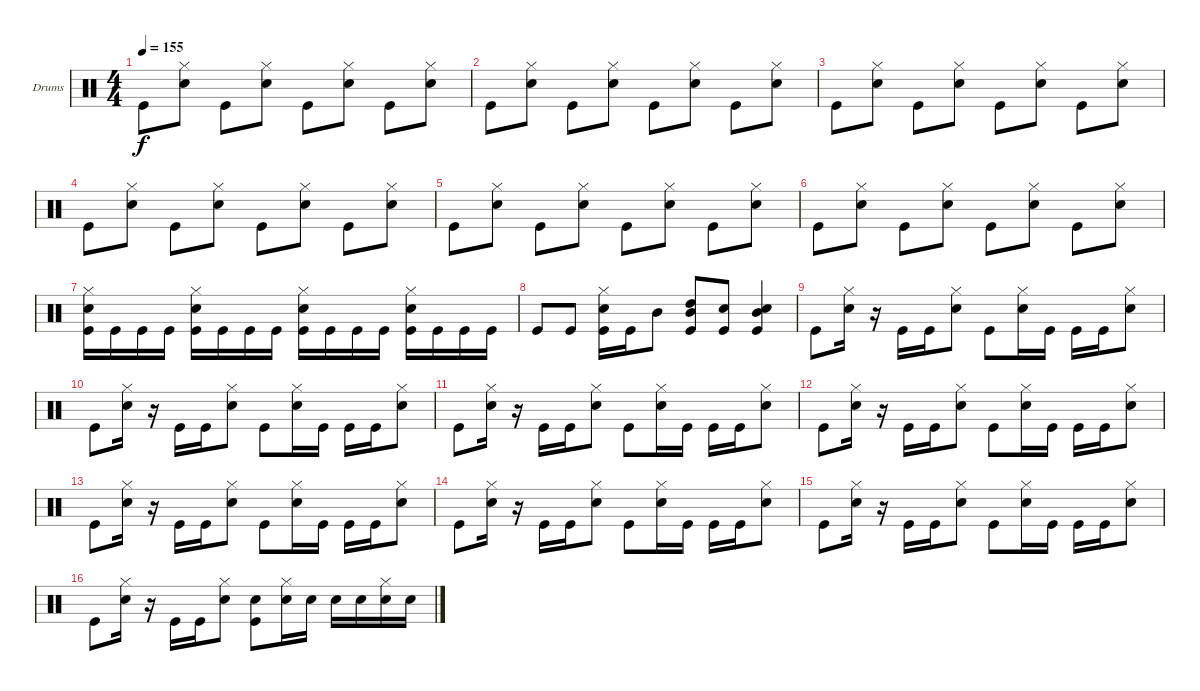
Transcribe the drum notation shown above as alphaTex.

\defaultSystemsLayout 4
\bracketExtendMode groupsimilarinstruments
\firstSystemTrackNameOrientation horizontal
\otherSystemsTrackNameOrientation horizontal
\track ("Drumkit" "Drums") {instrument percussion}
\staff {score}
\articulation defaults
\ts (4 4)
\tempo 155
\clef neutral
\scale
0.333333
\ks c "Kick (hit)".8{dy f}
("Snare (hit) 2" "Hi-Hat (closed)").8 "Kick (hit)".8 ("Snare (hit) 2" "Hi-Hat (closed)").8 "Kick (hit)".8 ("Snare (hit) 2" "Hi-Hat (closed)").8 "Kick (hit)".8 ("Snare (hit) 2" "Hi-Hat (closed)").8 |
\scale
0.333333 "Kick (hit)".8 ("Snare (hit) 2" "Hi-Hat (closed)").8 "Kick (hit)".8 ("Snare (hit) 2" "Hi-Hat (closed)").8 "Kick (hit)".8 ("Snare (hit) 2" "Hi-Hat (closed)").8 "Kick (hit)".8 ("Snare (hit) 2" "Hi-Hat (closed)").8 |
\scale
0.333333 "Kick (hit)".8 ("Snare (hit) 2" "Hi-Hat (closed)").8 "Kick (hit)".8 ("Snare (hit) 2" "Hi-Hat (closed)").8 "Kick (hit)".8 ("Snare (hit) 2" "Hi-Hat (closed)").8 "Kick (hit)".8 ("Snare (hit) 2" "Hi-Hat (closed)").8 |
\scale
0.333333 "Kick (hit)".8 ("Snare (hit) 2" "Hi-Hat (closed)").8 "Kick (hit)".8 ("Snare (hit) 2" "Hi-Hat (closed)").8 "Kick (hit)".8 ("Snare (hit) 2" "Hi-Hat (closed)").8 "Kick (hit)".8 ("Snare (hit) 2" "Hi-Hat (closed)").8 |
\scale
0.333333 "Kick (hit)".8 ("Snare (hit) 2" "Hi-Hat (closed)").8 "Kick (hit)".8 ("Snare (hit) 2" "Hi-Hat (closed)").8 "Kick (hit)".8 ("Snare (hit) 2" "Hi-Hat (closed)").8 "Kick (hit)".8 ("Snare (hit) 2" "Hi-Hat (closed)").8 |
\scale
0.333333 "Kick (hit)".8 ("Snare (hit) 2" "Hi-Hat (closed)").8 "Kick (hit)".8 ("Snare (hit) 2" "Hi-Hat (closed)").8 "Kick (hit)".8 ("Snare (hit) 2" "Hi-Hat (closed)").8 "Kick (hit)".8 ("Snare (hit) 2" "Hi-Hat (closed)").8 |
\scale
0.333333 ("Kick (hit)" "Snare (hit) 2" "Hi-Hat (closed)").16 "Kick (hit)".16 "Kick (hit)".16 "Kick (hit)".16 ("Kick (hit)" "Snare (hit) 2" "Hi-Hat (closed)").16 "Kick (hit)".16 "Kick (hit)".16 "Kick (hit)".16 ("Kick (hit)" "Snare (hit) 2" "Hi-Hat (closed)").16 "Kick (hit)".16 "Kick (hit)".16 "Kick (hit)".16 ("Kick (hit)" "Snare (hit) 2" "Hi-Hat (closed)").16 "Kick (hit)".16 "Kick (hit)".16 "Kick (hit)".16 |
\scale
0.333333 "Kick (hit)".8 "Kick (hit)".8 ("Kick (hit)" "Snare (hit) 2" "Hi-Hat (closed)").16 "Kick (hit)".16 "Mid Tom (hit)".8 ("Kick (hit)" "Mid Tom (hit)" "High Tom (hit)").8 ("Kick (hit)" "Snare (hit) 2").8 ("Kick (hit)" "Snare (hit) 2" "Mid Tom (hit)").4 |
"Kick (hit)".8 ("Snare (hit) 2" "Hi-Hat (closed)").16 r.16 "Kick (hit)".16 "Kick (hit)".16 ("Snare (hit) 2" "Hi-Hat (closed)").8 "Kick (hit)".8 ("Snare (hit) 2" "Hi-Hat (closed)").16 "Kick (hit)".16 "Kick (hit)".16 "Kick (hit)".16 ("Snare (hit) 2" "Hi-Hat (closed)").8 |
"Kick (hit)".8 ("Snare (hit) 2" "Hi-Hat (closed)").16 r.16 "Kick (hit)".16 "Kick (hit)".16 ("Snare (hit) 2" "Hi-Hat (closed)").8 "Kick (hit)".8 ("Snare (hit) 2" "Hi-Hat (closed)").16 "Kick (hit)".16 "Kick (hit)".16 "Kick (hit)".16 ("Snare (hit) 2" "Hi-Hat (closed)").8 |
"Kick (hit)".8 ("Snare (hit) 2" "Hi-Hat (closed)").16 r.16 "Kick (hit)".16 "Kick (hit)".16 ("Snare (hit) 2" "Hi-Hat (closed)").8 "Kick (hit)".8 ("Snare (hit) 2" "Hi-Hat (closed)").16 "Kick (hit)".16 "Kick (hit)".16 "Kick (hit)".16 ("Snare (hit) 2" "Hi-Hat (closed)").8 |
"Kick (hit)".8 ("Snare (hit) 2" "Hi-Hat (closed)").16 r.16 "Kick (hit)".16 "Kick (hit)".16 ("Snare (hit) 2" "Hi-Hat (closed)").8 "Kick (hit)".8 ("Snare (hit) 2" "Hi-Hat (closed)").16 "Kick (hit)".16 "Kick (hit)".16 "Kick (hit)".16 ("Snare (hit) 2" "Hi-Hat (closed)").8 |
"Kick (hit)".8 ("Snare (hit) 2" "Hi-Hat (closed)").16 r.16 "Kick (hit)".16 "Kick (hit)".16 ("Snare (hit) 2" "Hi-Hat (closed)").8 "Kick (hit)".8 ("Snare (hit) 2" "Hi-Hat (closed)").16 "Kick (hit)".16 "Kick (hit)".16 "Kick (hit)".16 ("Snare (hit) 2" "Hi-Hat (closed)").8 |
"Kick (hit)".8 ("Snare (hit) 2" "Hi-Hat (closed)").16 r.16 "Kick (hit)".16 "Kick (hit)".16 ("Snare (hit) 2" "Hi-Hat (closed)").8 "Kick (hit)".8 ("Snare (hit) 2" "Hi-Hat (closed)").16 "Kick (hit)".16 "Kick (hit)".16 "Kick (hit)".16 ("Snare (hit) 2" "Hi-Hat (closed)").8 |
"Kick (hit)".8 ("Snare (hit) 2" "Hi-Hat (closed)").16 r.16 "Kick (hit)".16 "Kick (hit)".16 ("Snare (hit) 2" "Hi-Hat (closed)").8 "Kick (hit)".8 ("Snare (hit) 2" "Hi-Hat (closed)").16 "Kick (hit)".16 "Kick (hit)".16 "Kick (hit)".16 ("Snare (hit) 2" "Hi-Hat (closed)").8 |
"Kick (hit)".8 ("Snare (hit) 2" "Hi-Hat (closed)").16 r.16 "Kick (hit)".16 "Kick (hit)".16 ("Snare (hit) 2" "Hi-Hat (closed)").8 ("Kick (hit)" "Snare (hit) 2").8 ("Snare (hit) 2" "Hi-Hat (closed)").16 "Snare (hit) 2".16 "Snare (hit) 2".16 "Snare (hit) 2".16 ("Snare (hit) 2" "Hi-Hat (closed)").16 "Snare (hit) 2".16
